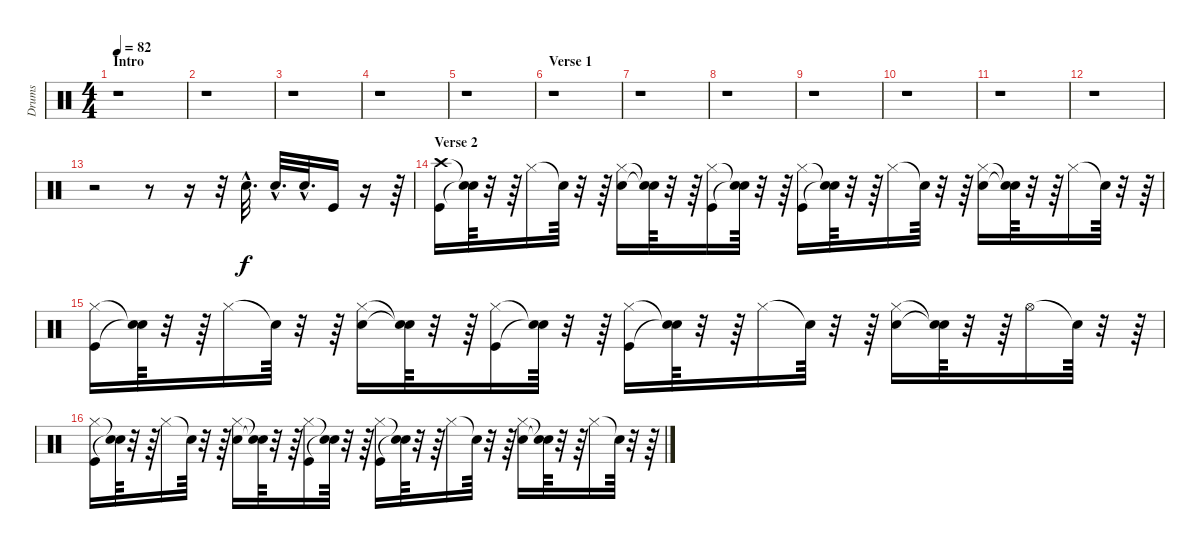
\track ("Drums" "Drums") {instrument percussion}
\staff {score}
\articulation defaults
\ts (4 4)
\section ("" "Intro")
\tempo 82
\clef neutral
\ks c
r.1{dy f} |
r.1 |
r.1 |
r.1 |
r.1 |
\section ("" "Verse 1")
r.1 |
r.1 |
r.1 |
r.1 |
r.1 |
r.1 |
r.1 |
r.2 r.8 r.16 r.32 "Snare (hit) 2"{hac}.32{d} "Snare (hit) 2"{hac}.32{d} "Snare (hit) 2"{hac}.32{d} "Kick (hit)".16 r.16 r.64 |
\section ("" "Verse 2")
("Crash high (hit)" "Kick (hit)").16 ("Snare (hit)"{t} "Snare (hit)"{t}).64 r.32 r.64 "Hi-Hat (closed)".16 "Snare (hit)"{t}.64 r.32 r.64 ("Hi-Hat (closed)" "Snare (hit) 2").16 ("Snare (hit)"{t} "Snare (hit)"{t}).64 r.32 r.64 ("Hi-Hat (closed)" "Kick (hit)").16 ("Snare (hit)"{t} "Snare (hit)"{t}).64 r.32 r.64 ("Hi-Hat (closed)" "Kick (hit)").16 ("Snare (hit)"{t} "Snare (hit)"{t}).64 r.32 r.64 "Hi-Hat (closed)".16 "Snare (hit)"{t}.64 r.32 r.64 ("Hi-Hat (closed)" "Snare (hit) 2").16 ("Snare (hit)"{t} "Snare (hit)"{t}).64 r.32 r.64 "Hi-Hat (closed)".16 "Snare (hit)"{t}.64 r.32 r.64 |
("Hi-Hat (closed)" "Kick (hit)").16 ("Snare (hit)"{t} "Snare (hit)"{t}).64 r.32 r.64 "Hi-Hat (closed)".16 "Snare (hit)"{t}.64 r.32 r.64 ("Hi-Hat (closed)" "Snare (hit) 2").16 ("Snare (hit)"{t} "Snare (hit)"{t}).64 r.32 r.64 ("Hi-Hat (closed)" "Kick (hit)").16 ("Snare (hit)"{t} "Snare (hit)"{t}).64 r.32 r.64 ("Hi-Hat (closed)" "Kick (hit)").16 ("Snare (hit)"{t} "Snare (hit)"{t}).64 r.32 r.64 "Hi-Hat (closed)".16 "Snare (hit)"{t}.64 r.32 r.64 ("Hi-Hat (closed)" "Snare (hit) 2").16 ("Snare (hit)"{t} "Snare (hit)"{t}).64 r.32 r.64 "Hi-Hat (open)".16 "Snare (hit)"{t}.64 r.32 r.64 |
("Hi-Hat (closed)" "Kick (hit)").16 ("Snare (hit)"{t} "Snare (hit)"{t}).64 r.32 r.64 "Hi-Hat (closed)".16 "Snare (hit)"{t}.64 r.32 r.64 ("Hi-Hat (closed)" "Snare (hit) 2").16 ("Snare (hit)"{t} "Snare (hit)"{t}).64 r.32 r.64 ("Hi-Hat (closed)" "Kick (hit)").16 ("Snare (hit)"{t} "Snare (hit)"{t}).64 r.32 r.64 ("Hi-Hat (closed)" "Kick (hit)").16 ("Snare (hit)"{t} "Snare (hit)"{t}).64 r.32 r.64 "Hi-Hat (closed)".16 "Snare (hit)"{t}.64 r.32 r.64 ("Hi-Hat (closed)" "Snare (hit) 2").16 ("Snare (hit)"{t} "Snare (hit)"{t}).64 r.32 r.64 "Hi-Hat (closed)".16 "Snare (hit)"{t}.64 r.32 r.64
